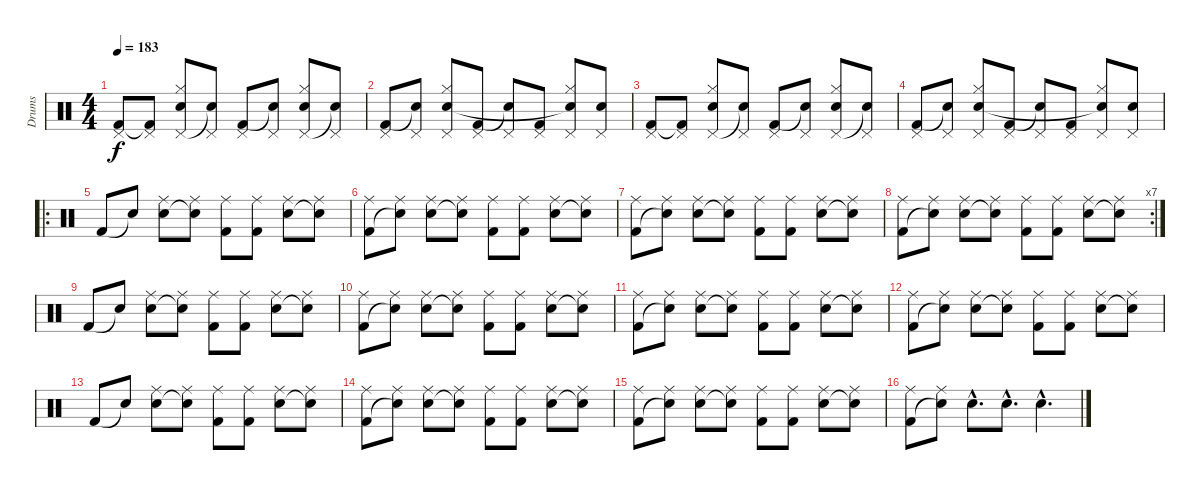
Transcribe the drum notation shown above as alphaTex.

\track ("Drums" "Drums") {instrument percussion}
\staff {score}
\articulation defaults
\ts (4 4)
\tempo 183
\clef neutral
\ks c
("Pedal Hi-Hat (hit)" "Kick (hit) 2").8{dy f} ("Pedal Hi-Hat (hit)" "Kick (hit) 2"{t}).8 ("Hi-Hat (closed)" "Pedal Hi-Hat (hit)" "Snare (hit) 2").8 ("Pedal Hi-Hat (hit)" "Snare (hit)"{t}).8 ("Pedal Hi-Hat (hit)" "Kick (hit) 2").8 ("Pedal Hi-Hat (hit)" "Snare (hit)"{t}).8 ("Hi-Hat (closed)" "Pedal Hi-Hat (hit)" "Snare (hit) 2").8 ("Pedal Hi-Hat (hit)" "Snare (hit)"{t}).8 |
("Pedal Hi-Hat (hit)" "Kick (hit) 2").8 ("Pedal Hi-Hat (hit)" "Snare (hit)"{t}).8 ("Hi-Hat (closed)" "Pedal Hi-Hat (hit)" "Snare (hit) 2").8 ("Pedal Hi-Hat (hit)" "Kick (hit) 2").8 ("Pedal Hi-Hat (hit)" "Snare (hit)"{t}).8 ("Pedal Hi-Hat (hit)" "Kick (hit) 2").8 ("Hi-Hat (closed)" "Pedal Hi-Hat (hit)" "Snare (hit)"{t}).8 ("Pedal Hi-Hat (hit)" "Snare (hit) 2").8 |
("Pedal Hi-Hat (hit)" "Kick (hit) 2").8 ("Pedal Hi-Hat (hit)" "Kick (hit) 2"{t}).8 ("Hi-Hat (closed)" "Pedal Hi-Hat (hit)" "Snare (hit) 2").8 ("Pedal Hi-Hat (hit)" "Snare (hit)"{t}).8 ("Pedal Hi-Hat (hit)" "Kick (hit) 2").8 ("Pedal Hi-Hat (hit)" "Snare (hit)"{t}).8 ("Hi-Hat (closed)" "Pedal Hi-Hat (hit)" "Snare (hit) 2").8 ("Pedal Hi-Hat (hit)" "Snare (hit)"{t}).8 |
("Pedal Hi-Hat (hit)" "Kick (hit) 2").8 ("Pedal Hi-Hat (hit)" "Snare (hit)"{t}).8 ("Hi-Hat (closed)" "Pedal Hi-Hat (hit)" "Snare (hit) 2").8 ("Pedal Hi-Hat (hit)" "Kick (hit) 2").8 ("Pedal Hi-Hat (hit)" "Snare (hit)"{t}).8 ("Pedal Hi-Hat (hit)" "Kick (hit) 2").8 ("Hi-Hat (closed)" "Pedal Hi-Hat (hit)" "Snare (hit)"{t}).8 ("Pedal Hi-Hat (hit)" "Snare (hit) 2").8 |
\ro "Kick (hit) 2".8 "Snare (hit)"{t}.8
("Ride (middle)" "Snare (hit) 2").8 ("Ride (middle)" "Snare (hit)"{t}).8 ("Ride (middle)" "Kick (hit) 2").8 ("Ride (middle)" "Kick (hit) 2").8 ("Ride (middle)" "Snare (hit) 2").8 ("Ride (middle)" "Snare (hit) 2"{t}).8 |
("Ride (middle)" "Kick (hit) 2").8 ("Ride (middle)" "Snare (hit)"{t}).8 ("Ride (middle)" "Snare (hit) 2").8 ("Ride (middle)" "Snare (hit)"{t}).8 ("Ride (middle)" "Kick (hit) 2").8 ("Ride (middle)" "Kick (hit) 2").8 ("Ride (middle)" "Snare (hit) 2").8 ("Ride (middle)" "Snare (hit) 2"{t}).8 |
("Ride (middle)" "Kick (hit) 2").8 ("Ride (middle)" "Snare (hit)"{t}).8 ("Ride (middle)" "Snare (hit) 2").8 ("Ride (middle)" "Snare (hit)"{t}).8 ("Ride (middle)" "Kick (hit) 2").8 ("Ride (middle)" "Kick (hit) 2").8 ("Ride (middle)" "Snare (hit) 2").8 ("Ride (middle)" "Snare (hit) 2"{t}).8 |
\rc 7
("Ride (middle)" "Kick (hit) 2").8 ("Ride (middle)" "Snare (hit)"{t}).8 ("Ride (middle)" "Snare (hit) 2").8 ("Ride (middle)" "Snare (hit)"{t}).8 ("Ride (middle)" "Kick (hit) 2").8 ("Ride (middle)" "Kick (hit) 2").8 ("Ride (middle)" "Snare (hit) 2").8 ("Ride (middle)" "Snare (hit) 2"{t}).8 |
"Kick (hit) 2".8 "Snare (hit)"{t}.8 ("Ride (middle)" "Snare (hit) 2").8 ("Ride (middle)" "Snare (hit)"{t}).8 ("Ride (middle)" "Kick (hit) 2").8 ("Ride (middle)" "Kick (hit) 2").8 ("Ride (middle)" "Snare (hit) 2").8 ("Ride (middle)" "Snare (hit) 2"{t}).8 |
("Ride (middle)" "Kick (hit) 2").8 ("Ride (middle)" "Snare (hit)"{t}).8 ("Ride (middle)" "Snare (hit) 2").8 ("Ride (middle)" "Snare (hit)"{t}).8 ("Ride (middle)" "Kick (hit) 2").8 ("Ride (middle)" "Kick (hit) 2").8 ("Ride (middle)" "Snare (hit) 2").8 ("Ride (middle)" "Snare (hit) 2"{t}).8 |
("Ride (middle)" "Kick (hit) 2").8 ("Ride (middle)" "Snare (hit)"{t}).8 ("Ride (middle)" "Snare (hit) 2").8 ("Ride (middle)" "Snare (hit)"{t}).8 ("Ride (middle)" "Kick (hit) 2").8 ("Ride (middle)" "Kick (hit) 2").8 ("Ride (middle)" "Snare (hit) 2").8 ("Ride (middle)" "Snare (hit) 2"{t}).8 |
("Ride (middle)" "Kick (hit) 2").8 ("Ride (middle)" "Snare (hit)"{t}).8 ("Ride (middle)" "Snare (hit) 2").8 ("Ride (middle)" "Snare (hit)"{t}).8 ("Ride (middle)" "Kick (hit) 2").8 ("Ride (middle)" "Kick (hit) 2").8 ("Ride (middle)" "Snare (hit) 2").8 ("Ride (middle)" "Snare (hit) 2"{t}).8 |
"Kick (hit) 2".8 "Snare (hit)"{t}.8 ("Ride (middle)" "Snare (hit) 2").8 ("Ride (middle)" "Snare (hit)"{t}).8 ("Ride (middle)" "Kick (hit) 2").8 ("Ride (middle)" "Kick (hit) 2").8 ("Ride (middle)" "Snare (hit) 2").8 ("Ride (middle)" "Snare (hit) 2"{t}).8 |
("Ride (middle)" "Kick (hit) 2").8 ("Ride (middle)" "Snare (hit)"{t}).8 ("Ride (middle)" "Snare (hit) 2").8 ("Ride (middle)" "Snare (hit)"{t}).8 ("Ride (middle)" "Kick (hit) 2").8 ("Ride (middle)" "Kick (hit) 2").8 ("Ride (middle)" "Snare (hit) 2").8 ("Ride (middle)" "Snare (hit) 2"{t}).8 |
("Ride (middle)" "Kick (hit) 2").8 ("Ride (middle)" "Snare (hit)"{t}).8 ("Ride (middle)" "Snare (hit) 2").8 ("Ride (middle)" "Snare (hit)"{t}).8 ("Ride (middle)" "Kick (hit) 2").8 ("Ride (middle)" "Kick (hit) 2").8 ("Ride (middle)" "Snare (hit) 2").8 ("Ride (middle)" "Snare (hit) 2"{t}).8 |
("Ride (middle)" "Kick (hit) 2").8 ("Ride (middle)" "Snare (hit)"{t}).8 "Snare (hit) 2"{hac}.8{d} "Snare (hit) 2"{hac}.8{d} "Snare (hit) 2"{hac}.4{d}
